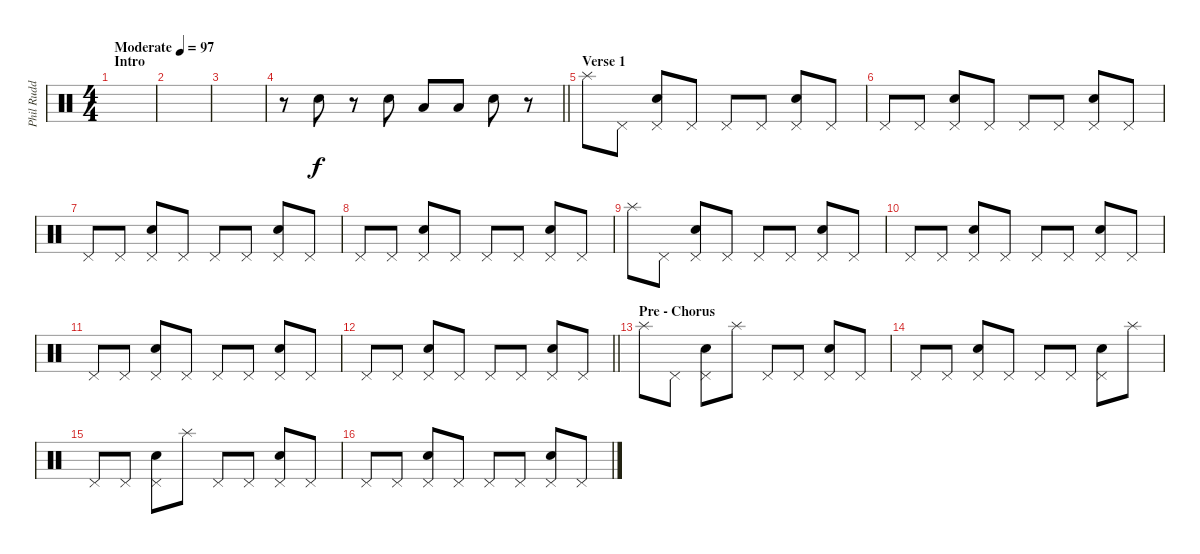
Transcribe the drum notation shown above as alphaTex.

\track ("Phil Rudd - Drums" "Phil Rudd ") {instrument percussion}
\staff {score}
\articulation defaults
\ts (4 4)
\section ("" "Intro")
\tempo (97 "Moderate")
\clef neutral
\ks c
|
|
|
\barLineRight lightlight
r.8 "Snare (hit) 2".8 r.8 "Snare (hit) 2".8 "Low Floor Tom (hit)".8 "Low Floor Tom (hit)".8 "Snare (hit) 2".8 r.8 |
\section ("" "Verse 1")
"Splash (hit)".8 "Pedal Hi-Hat (hit)".8 ("Pedal Hi-Hat (hit)" "Snare (hit) 2").8 "Pedal Hi-Hat (hit)".8 "Pedal Hi-Hat (hit)".8 "Pedal Hi-Hat (hit)".8 ("Pedal Hi-Hat (hit)" "Snare (hit) 2").8 "Pedal Hi-Hat (hit)".8 |
"Pedal Hi-Hat (hit)".8 "Pedal Hi-Hat (hit)".8 ("Pedal Hi-Hat (hit)" "Snare (hit) 2").8 "Pedal Hi-Hat (hit)".8 "Pedal Hi-Hat (hit)".8 "Pedal Hi-Hat (hit)".8 ("Pedal Hi-Hat (hit)" "Snare (hit) 2").8 "Pedal Hi-Hat (hit)".8 |
"Pedal Hi-Hat (hit)".8 "Pedal Hi-Hat (hit)".8 ("Pedal Hi-Hat (hit)" "Snare (hit) 2").8 "Pedal Hi-Hat (hit)".8 "Pedal Hi-Hat (hit)".8 "Pedal Hi-Hat (hit)".8 ("Pedal Hi-Hat (hit)" "Snare (hit) 2").8 "Pedal Hi-Hat (hit)".8 |
"Pedal Hi-Hat (hit)".8 "Pedal Hi-Hat (hit)".8 ("Pedal Hi-Hat (hit)" "Snare (hit) 2").8 "Pedal Hi-Hat (hit)".8 "Pedal Hi-Hat (hit)".8 "Pedal Hi-Hat (hit)".8 ("Pedal Hi-Hat (hit)" "Snare (hit) 2").8 "Pedal Hi-Hat (hit)".8 |
"Splash (hit)".8 "Pedal Hi-Hat (hit)".8 ("Pedal Hi-Hat (hit)" "Snare (hit) 2").8 "Pedal Hi-Hat (hit)".8 "Pedal Hi-Hat (hit)".8 "Pedal Hi-Hat (hit)".8 ("Pedal Hi-Hat (hit)" "Snare (hit) 2").8 "Pedal Hi-Hat (hit)".8 |
"Pedal Hi-Hat (hit)".8 "Pedal Hi-Hat (hit)".8 ("Pedal Hi-Hat (hit)" "Snare (hit) 2").8 "Pedal Hi-Hat (hit)".8 "Pedal Hi-Hat (hit)".8 "Pedal Hi-Hat (hit)".8 ("Pedal Hi-Hat (hit)" "Snare (hit) 2").8 "Pedal Hi-Hat (hit)".8 |
"Pedal Hi-Hat (hit)".8 "Pedal Hi-Hat (hit)".8 ("Pedal Hi-Hat (hit)" "Snare (hit) 2").8 "Pedal Hi-Hat (hit)".8 "Pedal Hi-Hat (hit)".8 "Pedal Hi-Hat (hit)".8 ("Pedal Hi-Hat (hit)" "Snare (hit) 2").8 "Pedal Hi-Hat (hit)".8 |
\barLineRight lightlight "Pedal Hi-Hat (hit)".8 "Pedal Hi-Hat (hit)".8
("Pedal Hi-Hat (hit)" "Snare (hit) 2").8 "Pedal Hi-Hat (hit)".8 "Pedal Hi-Hat (hit)".8 "Pedal Hi-Hat (hit)".8 ("Pedal Hi-Hat (hit)" "Snare (hit) 2").8 "Pedal Hi-Hat (hit)".8 |
\section ("" "Pre - Chorus")
"Splash (hit)".8 "Pedal Hi-Hat (hit)".8 ("Pedal Hi-Hat (hit)" "Snare (hit) 2").8 "Splash (hit)".8 "Pedal Hi-Hat (hit)".8 "Pedal Hi-Hat (hit)".8 ("Pedal Hi-Hat (hit)" "Snare (hit) 2").8 "Pedal Hi-Hat (hit)".8 |
"Pedal Hi-Hat (hit)".8 "Pedal Hi-Hat (hit)".8 ("Pedal Hi-Hat (hit)" "Snare (hit) 2").8 "Pedal Hi-Hat (hit)".8 "Pedal Hi-Hat (hit)".8 "Pedal Hi-Hat (hit)".8 ("Pedal Hi-Hat (hit)" "Snare (hit) 2").8 "Splash (hit)".8 |
"Pedal Hi-Hat (hit)".8 "Pedal Hi-Hat (hit)".8 ("Pedal Hi-Hat (hit)" "Snare (hit) 2").8 "Splash (hit)".8 "Pedal Hi-Hat (hit)".8 "Pedal Hi-Hat (hit)".8 ("Pedal Hi-Hat (hit)" "Snare (hit) 2").8 "Pedal Hi-Hat (hit)".8 |
"Pedal Hi-Hat (hit)".8 "Pedal Hi-Hat (hit)".8 ("Pedal Hi-Hat (hit)" "Snare (hit) 2").8 "Pedal Hi-Hat (hit)".8 "Pedal Hi-Hat (hit)".8 "Pedal Hi-Hat (hit)".8 ("Pedal Hi-Hat (hit)" "Snare (hit) 2").8 "Pedal Hi-Hat (hit)".8
